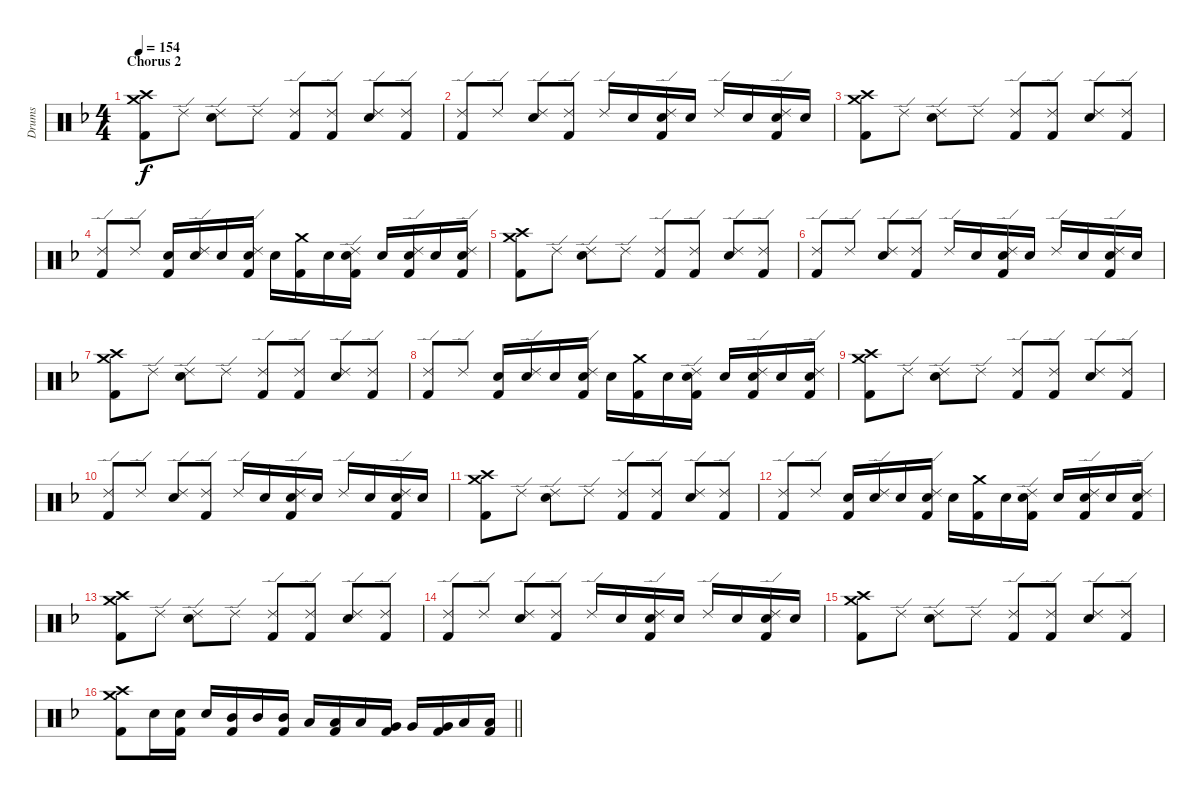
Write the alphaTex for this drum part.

\track ("Drums" "Drums") {instrument percussion}
\staff {score}
\articulation defaults
\ts (4 4)
\section ("" "Chorus 2")
\tempo 154
\clef neutral
\ks f
("Crash high (hit)" "Crash medium (hit)" "Kick (hit) 2").8{dy f} "Ride (edge) 2".8 ("Ride (edge) 2" "Electric Snare (hit)").8 "Ride (edge) 2".8 ("Ride (edge) 2" "Kick (hit) 2").8 ("Ride (edge) 2" "Kick (hit) 2").8 ("Ride (edge) 2" "Electric Snare (hit)").8 ("Ride (edge) 2" "Kick (hit) 2").8 |
("Ride (edge) 2" "Kick (hit) 2").8 "Ride (edge) 2".8 ("Ride (edge) 2" "Electric Snare (hit)").8 ("Ride (edge) 2" "Kick (hit) 2").8 "Ride (edge) 2".16 "Electric Snare (hit)".16 ("Ride (edge) 2" "Electric Snare (hit)" "Kick (hit) 2").16 "Electric Snare (hit)".16 "Ride (edge) 2".16 "Electric Snare (hit)".16 ("Ride (edge) 2" "Electric Snare (hit)" "Kick (hit) 2").16 "Electric Snare (hit)".16 |
("Crash high (hit)" "Crash medium (hit)" "Kick (hit) 2").8 "Ride (edge) 2".8 ("Ride (edge) 2" "Electric Snare (hit)").8 "Ride (edge) 2".8 ("Ride (edge) 2" "Kick (hit) 2").8 ("Ride (edge) 2" "Kick (hit) 2").8 ("Ride (edge) 2" "Electric Snare (hit)").8 ("Ride (edge) 2" "Kick (hit) 2").8 |
("Ride (edge) 2" "Kick (hit) 2").8 "Ride (edge) 2".8 ("Electric Snare (hit)" "Kick (hit) 2").16 ("Ride (edge) 2" "Electric Snare (hit)").16 "Electric Snare (hit)".16 ("Ride (edge) 2" "Electric Snare (hit)" "Kick (hit) 2").16 "Electric Snare (hit)".16 ("Crash medium (hit)" "Kick (hit) 2").16 "Electric Snare (hit)".16 ("Ride (edge) 2" "Electric Snare (hit)" "Kick (hit) 2").16 "Electric Snare (hit)".16 ("Ride (edge) 2" "Electric Snare (hit)" "Kick (hit) 2").16 "Electric Snare (hit)".16 ("Ride (edge) 2" "Electric Snare (hit)" "Kick (hit) 2").16 |
("Crash high (hit)" "Crash medium (hit)" "Kick (hit) 2").8 "Ride (edge) 2".8 ("Ride (edge) 2" "Electric Snare (hit)").8 "Ride (edge) 2".8 ("Ride (edge) 2" "Kick (hit) 2").8 ("Ride (edge) 2" "Kick (hit) 2").8 ("Ride (edge) 2" "Electric Snare (hit)").8 ("Ride (edge) 2" "Kick (hit) 2").8 |
("Ride (edge) 2" "Kick (hit) 2").8 "Ride (edge) 2".8 ("Ride (edge) 2" "Electric Snare (hit)").8 ("Ride (edge) 2" "Kick (hit) 2").8 "Ride (edge) 2".16 "Electric Snare (hit)".16 ("Ride (edge) 2" "Electric Snare (hit)" "Kick (hit) 2").16 "Electric Snare (hit)".16 "Ride (edge) 2".16 "Electric Snare (hit)".16 ("Ride (edge) 2" "Electric Snare (hit)" "Kick (hit) 2").16 "Electric Snare (hit)".16 |
("Crash high (hit)" "Crash medium (hit)" "Kick (hit) 2").8 "Ride (edge) 2".8 ("Ride (edge) 2" "Electric Snare (hit)").8 "Ride (edge) 2".8 ("Ride (edge) 2" "Kick (hit) 2").8 ("Ride (edge) 2" "Kick (hit) 2").8 ("Ride (edge) 2" "Electric Snare (hit)").8 ("Ride (edge) 2" "Kick (hit) 2").8 |
("Ride (edge) 2" "Kick (hit) 2").8 "Ride (edge) 2".8 ("Electric Snare (hit)" "Kick (hit) 2").16 ("Ride (edge) 2" "Electric Snare (hit)").16 "Electric Snare (hit)".16 ("Ride (edge) 2" "Electric Snare (hit)" "Kick (hit) 2").16 "Electric Snare (hit)".16 ("Crash medium (hit)" "Kick (hit) 2").16 "Electric Snare (hit)".16 ("Ride (edge) 2" "Electric Snare (hit)" "Kick (hit) 2").16 "Electric Snare (hit)".16 ("Ride (edge) 2" "Electric Snare (hit)" "Kick (hit) 2").16 "Electric Snare (hit)".16 ("Ride (edge) 2" "Electric Snare (hit)" "Kick (hit) 2").16 |
("Crash high (hit)" "Crash medium (hit)" "Kick (hit) 2").8 "Ride (edge) 2".8 ("Ride (edge) 2" "Electric Snare (hit)").8 "Ride (edge) 2".8 ("Ride (edge) 2" "Kick (hit) 2").8 ("Ride (edge) 2" "Kick (hit) 2").8 ("Ride (edge) 2" "Electric Snare (hit)").8 ("Ride (edge) 2" "Kick (hit) 2").8 |
("Ride (edge) 2" "Kick (hit) 2").8 "Ride (edge) 2".8 ("Ride (edge) 2" "Electric Snare (hit)").8 ("Ride (edge) 2" "Kick (hit) 2").8 "Ride (edge) 2".16 "Electric Snare (hit)".16 ("Ride (edge) 2" "Electric Snare (hit)" "Kick (hit) 2").16 "Electric Snare (hit)".16 "Ride (edge) 2".16 "Electric Snare (hit)".16 ("Ride (edge) 2" "Electric Snare (hit)" "Kick (hit) 2").16 "Electric Snare (hit)".16 |
("Crash high (hit)" "Crash medium (hit)" "Kick (hit) 2").8 "Ride (edge) 2".8 ("Ride (edge) 2" "Electric Snare (hit)").8 "Ride (edge) 2".8 ("Ride (edge) 2" "Kick (hit) 2").8 ("Ride (edge) 2" "Kick (hit) 2").8 ("Ride (edge) 2" "Electric Snare (hit)").8 ("Ride (edge) 2" "Kick (hit) 2").8 |
("Ride (edge) 2" "Kick (hit) 2").8 "Ride (edge) 2".8 ("Electric Snare (hit)" "Kick (hit) 2").16 ("Ride (edge) 2" "Electric Snare (hit)").16 "Electric Snare (hit)".16 ("Ride (edge) 2" "Electric Snare (hit)" "Kick (hit) 2").16 "Electric Snare (hit)".16 ("Crash medium (hit)" "Kick (hit) 2").16 "Electric Snare (hit)".16 ("Ride (edge) 2" "Electric Snare (hit)" "Kick (hit) 2").16 "Electric Snare (hit)".16 ("Ride (edge) 2" "Electric Snare (hit)" "Kick (hit) 2").16 "Electric Snare (hit)".16 ("Ride (edge) 2" "Electric Snare (hit)" "Kick (hit) 2").16 |
("Crash high (hit)" "Crash medium (hit)" "Kick (hit) 2").8 "Ride (edge) 2".8 ("Ride (edge) 2" "Electric Snare (hit)").8 "Ride (edge) 2".8 ("Ride (edge) 2" "Kick (hit) 2").8 ("Ride (edge) 2" "Kick (hit) 2").8 ("Ride (edge) 2" "Electric Snare (hit)").8 ("Ride (edge) 2" "Kick (hit) 2").8 |
("Ride (edge) 2" "Kick (hit) 2").8 "Ride (edge) 2".8 ("Ride (edge) 2" "Electric Snare (hit)").8 ("Ride (edge) 2" "Kick (hit) 2").8 "Ride (edge) 2".16 "Electric Snare (hit)".16 ("Ride (edge) 2" "Electric Snare (hit)" "Kick (hit) 2").16 "Electric Snare (hit)".16 "Ride (edge) 2".16 "Electric Snare (hit)".16 ("Ride (edge) 2" "Electric Snare (hit)" "Kick (hit) 2").16 "Electric Snare (hit)".16 |
("Crash high (hit)" "Crash medium (hit)" "Kick (hit) 2").8 "Ride (edge) 2".8 ("Ride (edge) 2" "Electric Snare (hit)").8 "Ride (edge) 2".8 ("Ride (edge) 2" "Kick (hit) 2").8 ("Ride (edge) 2" "Kick (hit) 2").8 ("Ride (edge) 2" "Electric Snare (hit)").8 ("Ride (edge) 2" "Kick (hit) 2").8 |
\barLineRight lightlight
("Crash high (hit)" "Crash medium (hit)" "Kick (hit) 2").8 "Electric Snare (hit)".16 ("Electric Snare (hit)" "Kick (hit) 2").16 "Electric Snare (hit)".16 ("Mid Tom (hit)" "Kick (hit) 2").16 "Mid Tom (hit)".16 ("Mid Tom (hit)" "Kick (hit) 2").16 "Low Tom (hit)".16 ("Low Tom (hit)" "Kick (hit) 2").16 "Low Tom (hit)".16 ("Very Low Tom (hit)" "Kick (hit) 2").16 "Very Low Tom (hit)".16 ("Very Low Tom (hit)" "Kick (hit) 2").16 "Low Floor Tom (hit)".16 ("Low Floor Tom (hit)" "Kick (hit) 2").16
